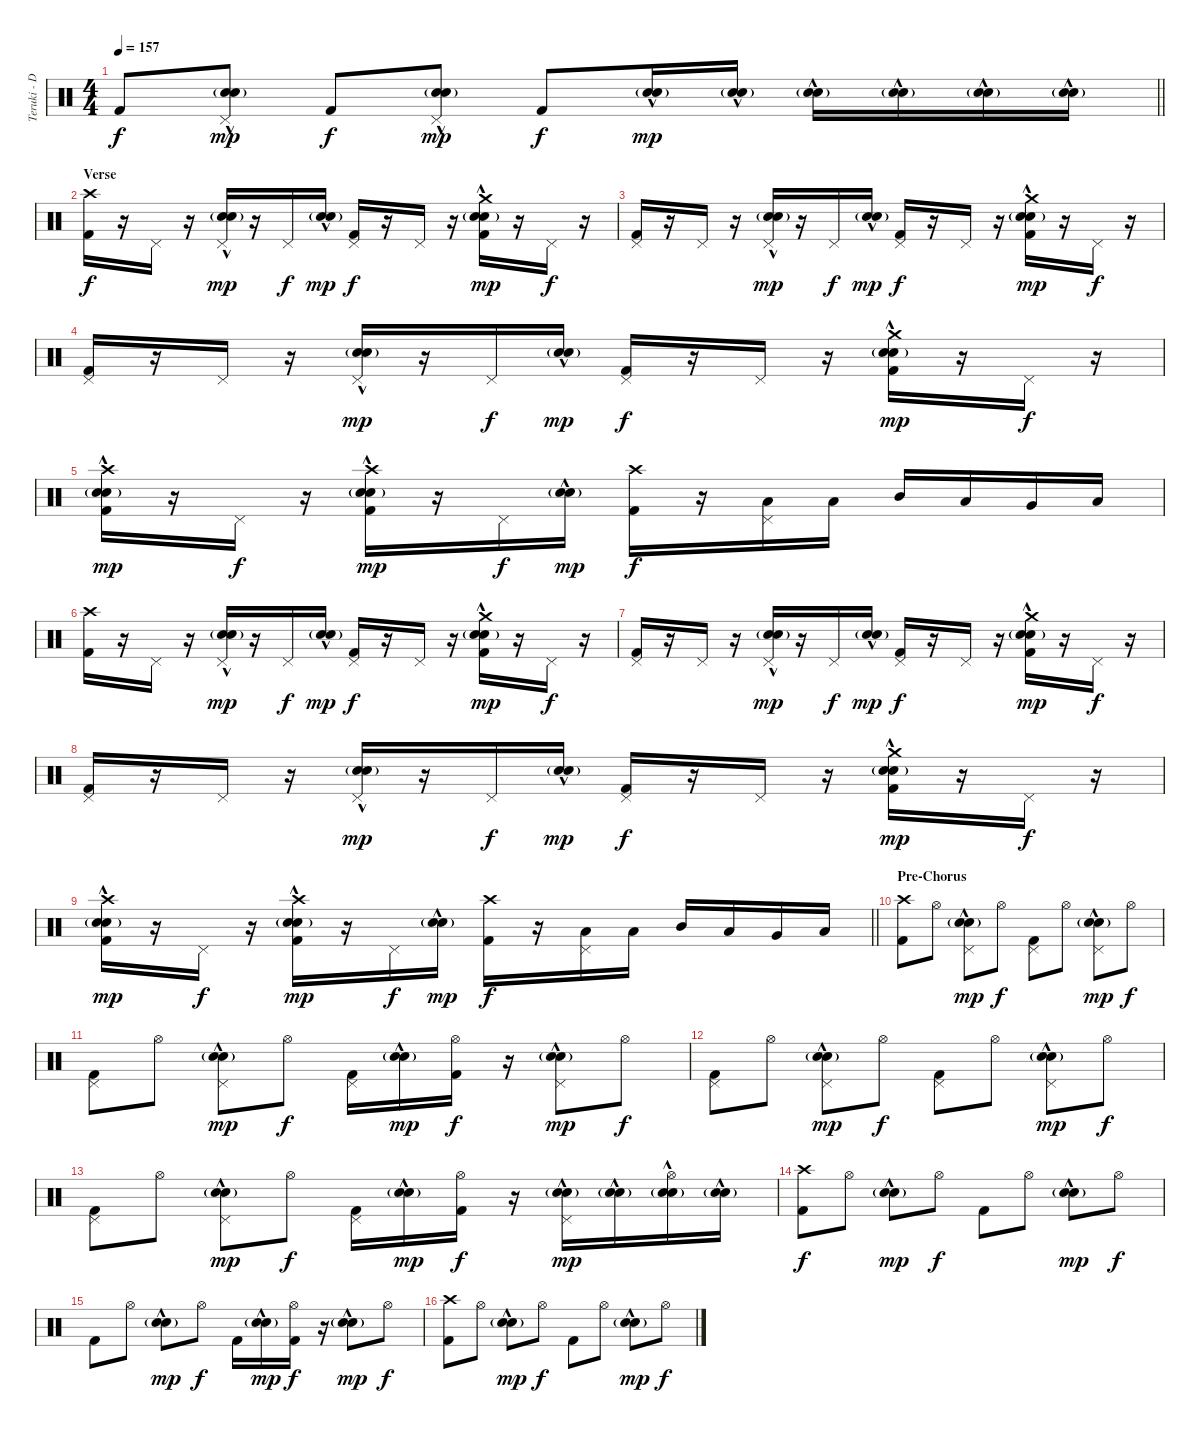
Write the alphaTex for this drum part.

\track ("Teruki - Drums" "Teruki - D") {instrument percussion}
\staff {score}
\articulation defaults
\ts (4 4)
\tempo 157
\clef neutral
\barLineRight lightlight
\ks c "Kick (hit) 2".8{dy f}
("Pedal Hi-Hat (hit)" "Electric Snare (hit)"{hac} "Snare (hit) 2"{g}).8{dy mp} "Kick (hit) 2".8{dy f} ("Pedal Hi-Hat (hit)" "Electric Snare (hit)"{hac} "Snare (hit) 2"{g}).8{dy mp} "Kick (hit) 2".8{dy f} ("Electric Snare (hit)"{hac} "Snare (hit) 2"{g}).16{dy mp} ("Electric Snare (hit)"{hac} "Snare (hit) 2"{g}).16 ("Electric Snare (hit)"{hac} "Snare (hit) 2"{g}).16 ("Electric Snare (hit)"{hac} "Snare (hit) 2"{g}).16 ("Electric Snare (hit)"{hac} "Snare (hit) 2"{g}).16 ("Electric Snare (hit)"{hac} "Snare (hit) 2"{g}).16 |
\section ("" "Verse")
("Crash high (hit)" "Kick (hit) 2").16{dy f} r.16 "Pedal Hi-Hat (hit)".16 r.16 ("Pedal Hi-Hat (hit)" "Electric Snare (hit)"{hac} "Snare (hit) 2"{g}).16{dy mp} r.16 "Pedal Hi-Hat (hit)".16{dy f} ("Electric Snare (hit)"{hac} "Snare (hit) 2"{g}).16{dy mp} ("Pedal Hi-Hat (hit)" "Kick (hit) 2").16{dy f} r.16 "Pedal Hi-Hat (hit)".16 r.16 ("Crash medium (hit)" "Electric Snare (hit)"{hac} "Snare (hit) 2"{g} "Kick (hit) 2").16{dy mp} r.16 "Pedal Hi-Hat (hit)".16{dy f} r.16 |
("Pedal Hi-Hat (hit)" "Kick (hit) 2").16 r.16 "Pedal Hi-Hat (hit)".16 r.16 ("Pedal Hi-Hat (hit)" "Electric Snare (hit)"{hac} "Snare (hit) 2"{g}).16{dy mp} r.16 "Pedal Hi-Hat (hit)".16{dy f} ("Electric Snare (hit)"{hac} "Snare (hit) 2"{g}).16{dy mp} ("Pedal Hi-Hat (hit)" "Kick (hit) 2").16{dy f} r.16 "Pedal Hi-Hat (hit)".16 r.16 ("Crash medium (hit)" "Electric Snare (hit)"{hac} "Snare (hit) 2"{g} "Kick (hit) 2").16{dy mp} r.16 "Pedal Hi-Hat (hit)".16{dy f} r.16 |
("Pedal Hi-Hat (hit)" "Kick (hit) 2").16 r.16 "Pedal Hi-Hat (hit)".16 r.16 ("Pedal Hi-Hat (hit)" "Electric Snare (hit)"{hac} "Snare (hit) 2"{g}).16{dy mp} r.16 "Pedal Hi-Hat (hit)".16{dy f} ("Electric Snare (hit)"{hac} "Snare (hit) 2"{g}).16{dy mp} ("Pedal Hi-Hat (hit)" "Kick (hit) 2").16{dy f} r.16 "Pedal Hi-Hat (hit)".16 r.16 ("Crash medium (hit)" "Electric Snare (hit)"{hac} "Snare (hit) 2"{g} "Kick (hit) 2").16{dy mp} r.16 "Pedal Hi-Hat (hit)".16{dy f} r.16 |
("Crash high (hit)" "Electric Snare (hit)"{hac} "Snare (hit) 2"{g} "Kick (hit) 2").16{dy mp} r.16 "Pedal Hi-Hat (hit)".16{dy f} r.16 ("Crash high (hit)" "Electric Snare (hit)"{hac} "Snare (hit) 2"{g} "Kick (hit) 2").16{dy mp} r.16 "Pedal Hi-Hat (hit)".16{dy f} ("Electric Snare (hit)"{hac} "Snare (hit) 2"{g}).16{dy mp} ("Crash high (hit)" "Kick (hit) 2").16{dy f} r.16 ("Pedal Hi-Hat (hit)" "Low Tom (hit)").16 "Low Tom (hit)".16 "Mid Tom (hit)".16 "Low Tom (hit)".16 "Very Low Tom (hit)".16 "Low Floor Tom (hit)".16 |
("Crash high (hit)" "Kick (hit) 2").16 r.16 "Pedal Hi-Hat (hit)".16 r.16 ("Pedal Hi-Hat (hit)" "Electric Snare (hit)"{hac} "Snare (hit) 2"{g}).16{dy mp} r.16 "Pedal Hi-Hat (hit)".16{dy f} ("Electric Snare (hit)"{hac} "Snare (hit) 2"{g}).16{dy mp} ("Pedal Hi-Hat (hit)" "Kick (hit) 2").16{dy f} r.16 "Pedal Hi-Hat (hit)".16 r.16 ("Crash medium (hit)" "Electric Snare (hit)"{hac} "Snare (hit) 2"{g} "Kick (hit) 2").16{dy mp} r.16 "Pedal Hi-Hat (hit)".16{dy f} r.16 |
("Pedal Hi-Hat (hit)" "Kick (hit) 2").16 r.16 "Pedal Hi-Hat (hit)".16 r.16 ("Pedal Hi-Hat (hit)" "Electric Snare (hit)"{hac} "Snare (hit) 2"{g}).16{dy mp} r.16 "Pedal Hi-Hat (hit)".16{dy f} ("Electric Snare (hit)"{hac} "Snare (hit) 2"{g}).16{dy mp} ("Pedal Hi-Hat (hit)" "Kick (hit) 2").16{dy f} r.16 "Pedal Hi-Hat (hit)".16 r.16 ("Crash medium (hit)" "Electric Snare (hit)"{hac} "Snare (hit) 2"{g} "Kick (hit) 2").16{dy mp} r.16 "Pedal Hi-Hat (hit)".16{dy f} r.16 |
("Pedal Hi-Hat (hit)" "Kick (hit) 2").16 r.16 "Pedal Hi-Hat (hit)".16 r.16 ("Pedal Hi-Hat (hit)" "Electric Snare (hit)"{hac} "Snare (hit) 2"{g}).16{dy mp} r.16 "Pedal Hi-Hat (hit)".16{dy f} ("Electric Snare (hit)"{hac} "Snare (hit) 2"{g}).16{dy mp} ("Pedal Hi-Hat (hit)" "Kick (hit) 2").16{dy f} r.16 "Pedal Hi-Hat (hit)".16 r.16 ("Crash medium (hit)" "Electric Snare (hit)"{hac} "Snare (hit) 2"{g} "Kick (hit) 2").16{dy mp} r.16 "Pedal Hi-Hat (hit)".16{dy f} r.16 |
\barLineRight lightlight
("Crash high (hit)" "Electric Snare (hit)"{hac} "Snare (hit) 2"{g} "Kick (hit) 2").16{dy mp} r.16 "Pedal Hi-Hat (hit)".16{dy f} r.16 ("Crash high (hit)" "Electric Snare (hit)"{hac} "Snare (hit) 2"{g} "Kick (hit) 2").16{dy mp} r.16 "Pedal Hi-Hat (hit)".16{dy f} ("Electric Snare (hit)"{hac} "Snare (hit) 2"{g}).16{dy mp} ("Crash high (hit)" "Kick (hit) 2").16{dy f} r.16 ("Pedal Hi-Hat (hit)" "Low Tom (hit)").16 "Low Tom (hit)".16 "Mid Tom (hit)".16 "Low Tom (hit)".16 "Very Low Tom (hit)".16 "Low Floor Tom (hit)".16 |
\section ("" "Pre-Chorus")
("Crash high (hit)" "Kick (hit) 2").8 "Hi-Hat (open)".8 ("Pedal Hi-Hat (hit)" "Electric Snare (hit)"{hac} "Snare (hit) 2"{g}).8{dy mp} "Hi-Hat (open)".8{dy f} ("Pedal Hi-Hat (hit)" "Kick (hit) 2").8 "Hi-Hat (open)".8 ("Pedal Hi-Hat (hit)" "Electric Snare (hit)"{hac} "Snare (hit) 2"{g}).8{dy mp} "Hi-Hat (open)".8{dy f} |
("Pedal Hi-Hat (hit)" "Kick (hit) 2").8 "Hi-Hat (open)".8 ("Pedal Hi-Hat (hit)" "Electric Snare (hit)"{hac} "Snare (hit) 2"{g}).8{dy mp} "Hi-Hat (open)".8{dy f} ("Pedal Hi-Hat (hit)" "Kick (hit) 2").16 ("Electric Snare (hit)"{hac} "Snare (hit) 2"{g}).16{dy mp} ("Hi-Hat (open)" "Kick (hit) 2").16{dy f} r.16 ("Pedal Hi-Hat (hit)" "Electric Snare (hit)"{hac} "Snare (hit) 2"{g}).8{dy mp} "Hi-Hat (open)".8{dy f} |
("Pedal Hi-Hat (hit)" "Kick (hit) 2").8 "Hi-Hat (open)".8 ("Pedal Hi-Hat (hit)" "Electric Snare (hit)"{hac} "Snare (hit) 2"{g}).8{dy mp} "Hi-Hat (open)".8{dy f} ("Pedal Hi-Hat (hit)" "Kick (hit) 2").8 "Hi-Hat (open)".8 ("Pedal Hi-Hat (hit)" "Electric Snare (hit)"{hac} "Snare (hit) 2"{g}).8{dy mp} "Hi-Hat (open)".8{dy f} |
("Pedal Hi-Hat (hit)" "Kick (hit) 2").8 "Hi-Hat (open)".8 ("Pedal Hi-Hat (hit)" "Electric Snare (hit)"{hac} "Snare (hit) 2"{g}).8{dy mp} "Hi-Hat (open)".8{dy f} ("Pedal Hi-Hat (hit)" "Kick (hit) 2").16 ("Electric Snare (hit)"{hac} "Snare (hit) 2"{g}).16{dy mp} ("Hi-Hat (open)" "Kick (hit) 2").16{dy f} r.16 ("Pedal Hi-Hat (hit)" "Electric Snare (hit)"{hac} "Snare (hit) 2"{g}).16{dy mp} ("Electric Snare (hit)"{hac} "Snare (hit) 2"{g}).16 ("Hi-Hat (open)" "Electric Snare (hit)"{hac} "Snare (hit) 2"{g}).16 ("Electric Snare (hit)"{hac} "Snare (hit) 2"{g}).16 |
("Crash high (hit)" "Kick (hit) 2").8{dy f} "Hi-Hat (open)".8 ("Electric Snare (hit)"{hac} "Snare (hit) 2"{g}).8{dy mp} "Hi-Hat (open)".8{dy f} "Kick (hit) 2".8 "Hi-Hat (open)".8 ("Electric Snare (hit)"{hac} "Snare (hit) 2"{g}).8{dy mp} "Hi-Hat (open)".8{dy f} |
"Kick (hit) 2".8 "Hi-Hat (open)".8 ("Electric Snare (hit)"{hac} "Snare (hit) 2"{g}).8{dy mp} "Hi-Hat (open)".8{dy f} "Kick (hit) 2".16 ("Electric Snare (hit)"{hac} "Snare (hit) 2"{g}).16{dy mp} ("Hi-Hat (open)" "Kick (hit) 2").16{dy f} r.16 ("Electric Snare (hit)"{hac} "Snare (hit) 2"{g}).8{dy mp} "Hi-Hat (open)".8{dy f} |
("Crash high (hit)" "Kick (hit) 2").8 "Hi-Hat (open)".8 ("Electric Snare (hit)"{hac} "Snare (hit) 2"{g}).8{dy mp} "Hi-Hat (open)".8{dy f} "Kick (hit) 2".8 "Hi-Hat (open)".8 ("Electric Snare (hit)"{hac} "Snare (hit) 2"{g}).8{dy mp} "Hi-Hat (open)".8{dy f}
